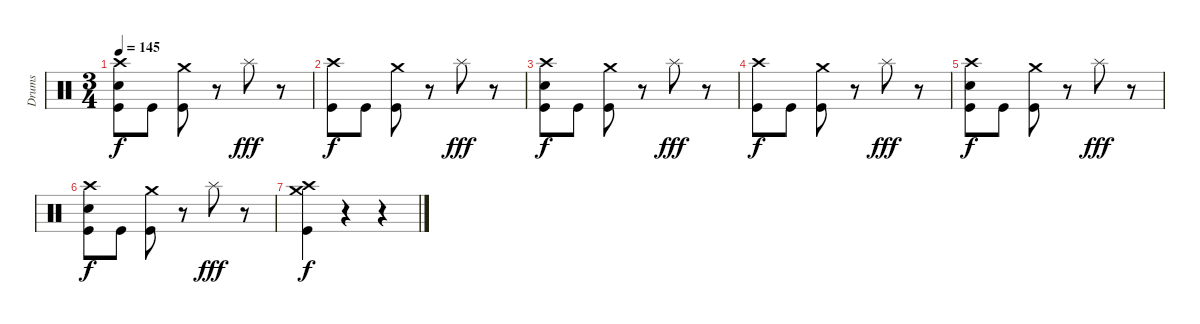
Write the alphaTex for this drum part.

\track ("Drums" "Drums") {instrument percussion}
\staff {score}
\articulation defaults
\ts (3 4)
\tempo 145
\clef neutral
\ks c
("Crash high (hit)" "Electric Snare (hit)" "Kick (hit)").8{dy f} "Kick (hit)".8 ("Crash medium (hit)" "Kick (hit)").8 r.8 "Splash (hit)".8{dy fff} r.8 |
("Crash high (hit)" "Kick (hit)").8{dy f} "Kick (hit)".8 ("Crash medium (hit)" "Kick (hit)").8 r.8 "Splash (hit)".8{dy fff} r.8 |
("Crash high (hit)" "Electric Snare (hit)" "Kick (hit)").8{dy f} "Kick (hit)".8 ("Crash medium (hit)" "Kick (hit)").8 r.8 "Splash (hit)".8{dy fff} r.8 |
("Crash high (hit)" "Kick (hit)").8{dy f} "Kick (hit)".8 ("Crash medium (hit)" "Kick (hit)").8 r.8 "Splash (hit)".8{dy fff} r.8 |
("Crash high (hit)" "Electric Snare (hit)" "Kick (hit)").8{dy f} "Kick (hit)".8 ("Crash medium (hit)" "Kick (hit)").8 r.8 "Splash (hit)".8{dy fff} r.8 |
("Crash high (hit)" "Electric Snare (hit)" "Kick (hit)").8{dy f} "Kick (hit)".8 ("Crash medium (hit)" "Kick (hit)").8 r.8 "Splash (hit)".8{dy fff} r.8 |
("Crash high (hit)" "Crash medium (hit)" "Kick (hit)").4{dy f} r.4 r.4
